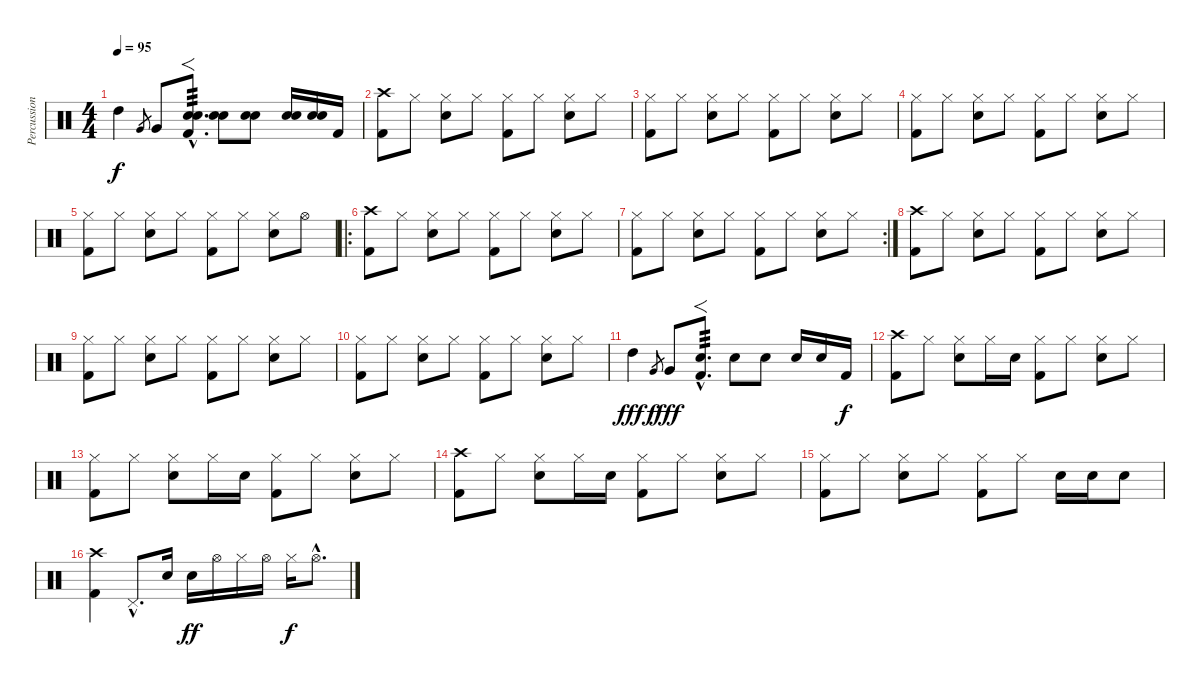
\track ("Percussion" "Percussion") {instrument percussion}
\staff {score}
\articulation defaults
\ts (4 4)
\tempo 95
\clef neutral
\ks c "High Tom (hit)".4{dy f} "Very Low Tom (hit)".8{gr} "Very Low Tom (hit)".8
("Electric Snare (hit)"{hac} "Electric Snare (hit)"{hac} "Kick (hit) 2"{hac}).8{f d tp 3} ("Electric Snare (hit)" "Electric Snare (hit)").8 ("Electric Snare (hit)" "Electric Snare (hit)").8 ("Electric Snare (hit)" "Electric Snare (hit)").16 ("Electric Snare (hit)" "Electric Snare (hit)").16 "Kick (hit) 2".16 |
("Crash high (hit)" "Kick (hit) 2").8 "Hi-Hat (closed)".8 ("Hi-Hat (closed)" "Electric Snare (hit)").8 "Hi-Hat (closed)".8 ("Hi-Hat (closed)" "Kick (hit) 2").8 "Hi-Hat (closed)".8 ("Hi-Hat (closed)" "Electric Snare (hit)").8 "Hi-Hat (closed)".8 |
("Hi-Hat (closed)" "Kick (hit) 2").8 "Hi-Hat (closed)".8 ("Hi-Hat (closed)" "Electric Snare (hit)").8 "Hi-Hat (closed)".8 ("Hi-Hat (closed)" "Kick (hit) 2").8 "Hi-Hat (closed)".8 ("Hi-Hat (closed)" "Electric Snare (hit)").8 "Hi-Hat (closed)".8 |
("Hi-Hat (closed)" "Kick (hit) 2").8 "Hi-Hat (closed)".8 ("Hi-Hat (closed)" "Electric Snare (hit)").8 "Hi-Hat (closed)".8 ("Hi-Hat (closed)" "Kick (hit) 2").8 "Hi-Hat (closed)".8 ("Hi-Hat (closed)" "Electric Snare (hit)").8 "Hi-Hat (closed)".8 |
("Hi-Hat (closed)" "Kick (hit) 2").8 "Hi-Hat (closed)".8 ("Hi-Hat (closed)" "Electric Snare (hit)").8 "Hi-Hat (closed)".8 ("Hi-Hat (closed)" "Kick (hit) 2").8 "Hi-Hat (closed)".8 ("Hi-Hat (closed)" "Electric Snare (hit)").8 "Hi-Hat (open)".8 |
\ro
("Crash high (hit)" "Kick (hit) 2").8 "Hi-Hat (closed)".8 ("Hi-Hat (closed)" "Electric Snare (hit)").8 "Hi-Hat (closed)".8 ("Hi-Hat (closed)" "Kick (hit) 2").8 "Hi-Hat (closed)".8 ("Hi-Hat (closed)" "Electric Snare (hit)").8 "Hi-Hat (closed)".8 |
\rc 2
("Hi-Hat (closed)" "Kick (hit) 2").8 "Hi-Hat (closed)".8 ("Hi-Hat (closed)" "Electric Snare (hit)").8 "Hi-Hat (closed)".8 ("Hi-Hat (closed)" "Kick (hit) 2").8 "Hi-Hat (closed)".8 ("Hi-Hat (closed)" "Electric Snare (hit)").8 "Hi-Hat (closed)".8 |
("Crash high (hit)" "Kick (hit) 2").8 "Hi-Hat (closed)".8 ("Hi-Hat (closed)" "Electric Snare (hit)").8 "Hi-Hat (closed)".8 ("Hi-Hat (closed)" "Kick (hit) 2").8 "Hi-Hat (closed)".8 ("Hi-Hat (closed)" "Electric Snare (hit)").8 "Hi-Hat (closed)".8 |
("Hi-Hat (closed)" "Kick (hit) 2").8 "Hi-Hat (closed)".8 ("Hi-Hat (closed)" "Electric Snare (hit)").8 "Hi-Hat (closed)".8 ("Hi-Hat (closed)" "Kick (hit) 2").8 "Hi-Hat (closed)".8 ("Hi-Hat (closed)" "Electric Snare (hit)").8 "Hi-Hat (closed)".8 |
("Hi-Hat (closed)" "Kick (hit) 2").8 "Hi-Hat (closed)".8 ("Hi-Hat (closed)" "Electric Snare (hit)").8 "Hi-Hat (closed)".8 ("Hi-Hat (closed)" "Kick (hit) 2").8 "Hi-Hat (closed)".8 ("Hi-Hat (closed)" "Electric Snare (hit)").8 "Hi-Hat (closed)".8 |
"High Tom (hit)".4{dy fff volume 16} "Very Low Tom (hit)".8{gr dy f} "Very Low Tom (hit)".8{dy fff} ("Electric Snare (hit)"{hac} "Kick (hit) 2"{hac}).8{f d tp 3} "Electric Snare (hit)".8 "Electric Snare (hit)".8 "Electric Snare (hit)".16 "Electric Snare (hit)".16 "Kick (hit) 2".16{dy f} |
("Crash high (hit)" "Kick (hit) 2").8 "Hi-Hat (closed)".8 ("Hi-Hat (closed)" "Electric Snare (hit)").8 "Hi-Hat (closed)".16 "Electric Snare (hit)".16 ("Hi-Hat (closed)" "Kick (hit) 2").8 "Hi-Hat (closed)".8 ("Hi-Hat (closed)" "Electric Snare (hit)").8 "Hi-Hat (closed)".8 |
("Hi-Hat (closed)" "Kick (hit) 2").8 "Hi-Hat (closed)".8 ("Hi-Hat (closed)" "Electric Snare (hit)").8 "Hi-Hat (closed)".16 "Electric Snare (hit)".16 ("Hi-Hat (closed)" "Kick (hit) 2").8 "Hi-Hat (closed)".8 ("Hi-Hat (closed)" "Electric Snare (hit)").8 "Hi-Hat (closed)".8 |
("Crash high (hit)" "Kick (hit) 2").8 "Hi-Hat (closed)".8 ("Hi-Hat (closed)" "Electric Snare (hit)").8 "Hi-Hat (closed)".16 "Electric Snare (hit)".16 ("Hi-Hat (closed)" "Kick (hit) 2").8 "Hi-Hat (closed)".8 ("Hi-Hat (closed)" "Electric Snare (hit)").8 "Hi-Hat (closed)".8 |
("Hi-Hat (closed)" "Kick (hit) 2").8 "Hi-Hat (closed)".8 ("Hi-Hat (closed)" "Electric Snare (hit)").8 "Hi-Hat (closed)".8 ("Hi-Hat (closed)" "Kick (hit) 2").8 "Hi-Hat (closed)".8 "Electric Snare (hit)".16 "Electric Snare (hit)".16 "Electric Snare (hit)".8 |
("Kick (hit) 2" "Crash high (hit)").4 "Pedal Hi-Hat (hit)"{hac}.8{d} "Electric Snare (hit)".16 "Electric Snare (hit)".16{dy ff} "Hi-Hat (open)".16 "Hi-Hat (closed)".16 "Hi-Hat (open)".16 "Hi-Hat (closed)".16{dy f} "Hi-Hat (open)"{hac}.8{d}
